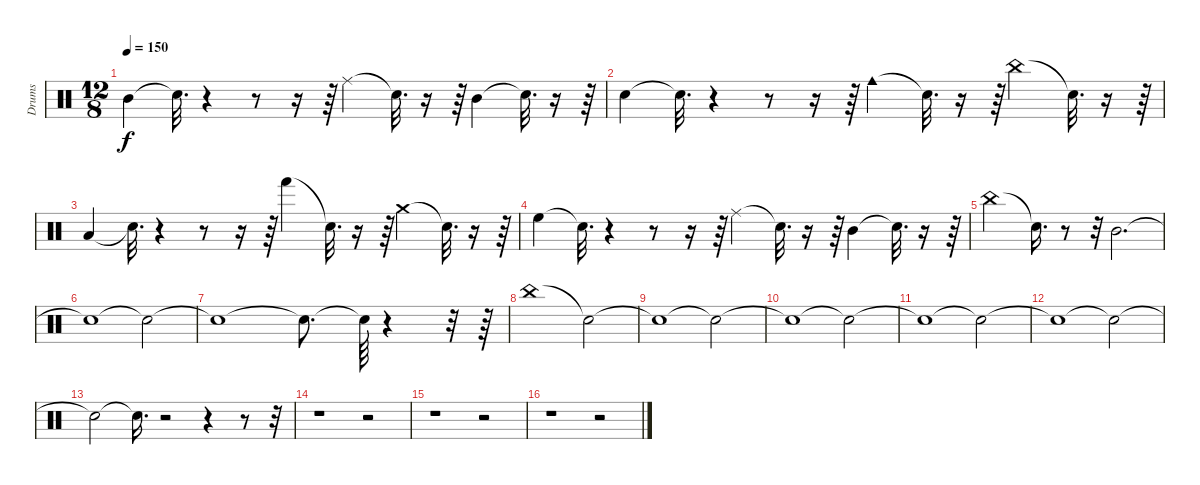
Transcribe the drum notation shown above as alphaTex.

\track ("Drums" "Drums") {instrument percussion}
\staff {score}
\articulation defaults
\ts (12 8)
\tempo 150
\clef neutral
\ks c "Mid Tom (hit)".4{dy f} "Snare (hit)"{t}.32{d}
r.4 r.8 r.16 r.64 "Ride (middle)".4 "Snare (hit)"{t}.32{d} r.16 r.64 "Mid Tom (hit)".4 "Snare (hit)"{t}.32{d} r.16 r.64 |
"Electric Snare (hit)".4 "Snare (hit)"{t}.32{d} r.4 r.8 r.16 r.64 "Cowbell medium (hit)".4 "Snare (hit)"{t}.32{d} r.16 r.64 "China (hit)".4 "Snare (hit)"{t}.32{d} r.16 r.64 |
"Low Tom (hit)".4 "Snare (hit)"{t}.32{d} r.4 r.8 r.16 r.64 "Hand (hit)".4 "Snare (hit)"{t}.32{d} r.16 r.64 "Crash medium (hit)".4 "Snare (hit)"{t}.32{d} r.16 r.64 |
"High Floor Tom (hit)".4 "Snare (hit)"{t}.32{d} r.4 r.8 r.16 r.64 "Ride (middle)".4 "Snare (hit)"{t}.32{d} r.16 r.64 "Mid Tom (hit)".4 "Snare (hit)"{t}.32{d} r.16 r.64 |
"China (hit)".2 "Snare (hit)"{t}.16{d} r.8 r.32 "Mid Tom (hit)".2{d} |
"Snare (hit)"{t}.1 "Snare (hit)"{t}.2 |
"Snare (hit)"{t}.1 "Snare (hit)"{t}.8{d} "Snare (hit)"{t}.64 r.4 r.32 r.64 |
"China (hit)".1 "Snare (hit)"{t}.2 |
"Snare (hit)"{t}.1 "Snare (hit)"{t}.2 |
"Snare (hit)"{t}.1 "Snare (hit)"{t}.2 |
"Snare (hit)"{t}.1 "Snare (hit)"{t}.2 |
"Snare (hit)"{t}.1 "Snare (hit)"{t}.2 |
"Snare (hit)"{t}.2 "Snare (hit)"{t}.16{d} r.2 r.4 r.8 r.32 |
r.1 r.2 |
r.1 r.2 |
r.1 r.2
